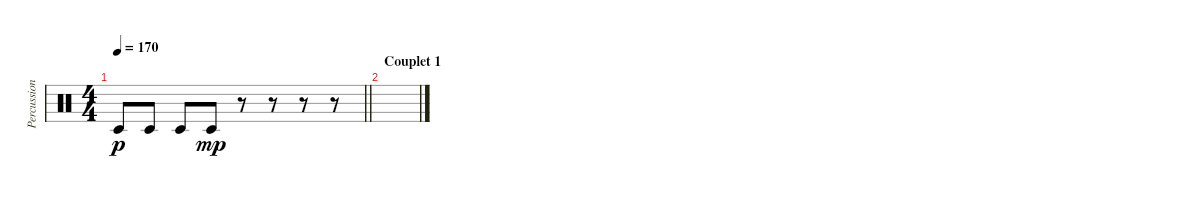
\track ("Percussions" "Percussion") {instrument percussion}
\staff {score}
\articulation defaults
\ts (4 4)
\tempo 170
\clef neutral
\barLineRight lightlight
\ks c "Timbale low (hit)".8{dy p} "Timbale low (hit)".8 "Timbale low (hit)".8 "Timbale low (hit)".8{dy mp}
r.8 r.8 r.8 r.8 |
\section ("" "Couplet 1")
